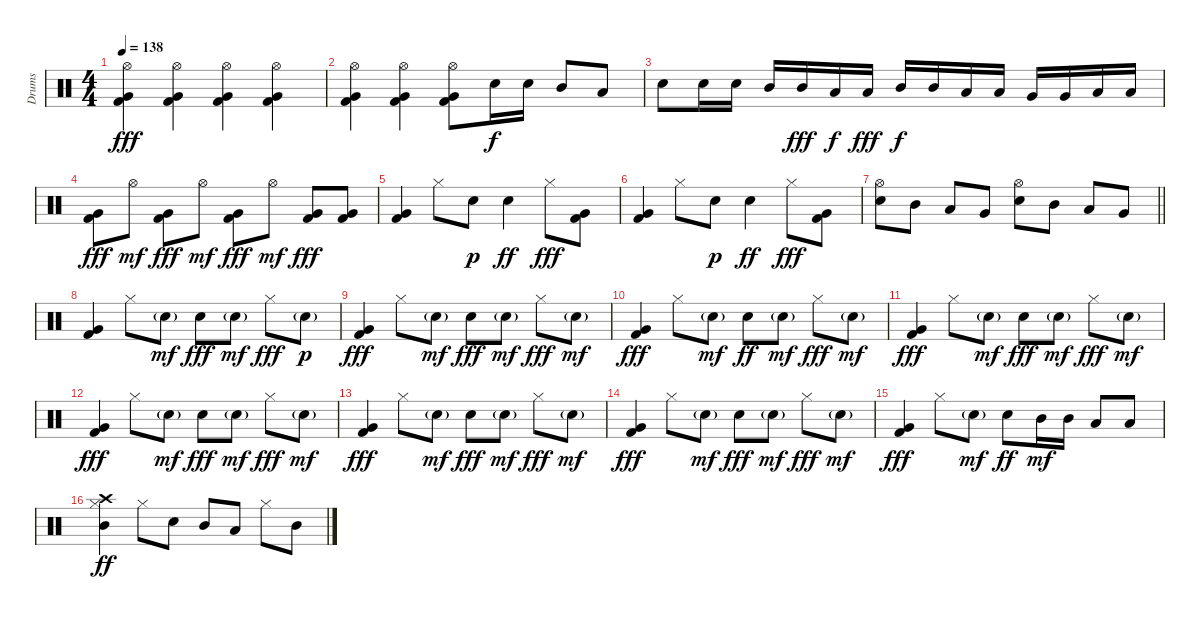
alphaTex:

\track ("Drums" "Drums") {instrument percussion}
\staff {score}
\articulation defaults
\ts (4 4)
\tempo 138
\clef neutral
\ks c
("Hi-Hat (open)" "Very Low Tom (hit)" "Kick (hit) 2").4{dy fff} ("Hi-Hat (open)" "Very Low Tom (hit)" "Kick (hit) 2").4 ("Hi-Hat (open)" "Very Low Tom (hit)" "Kick (hit) 2").4 ("Hi-Hat (open)" "Very Low Tom (hit)" "Kick (hit) 2").4 |
("Hi-Hat (open)" "Very Low Tom (hit)" "Kick (hit) 2").4 ("Hi-Hat (open)" "Very Low Tom (hit)" "Kick (hit) 2").4 ("Hi-Hat (open)" "Very Low Tom (hit)" "Kick (hit) 2").8 "Electric Snare (hit)".16{dy f} "Electric Snare (hit)".16 "Mid Tom (hit)".8 "Low Tom (hit)".8 |
"Electric Snare (hit)".8 "Electric Snare (hit)".16 "Electric Snare (hit)".16 "Mid Tom (hit)".16 "Mid Tom (hit)".16{dy fff} "Low Tom (hit)".16{dy f} "Low Tom (hit)".16{dy fff} "Mid Tom (hit)".16{dy f} "Mid Tom (hit)".16 "Low Tom (hit)".16 "Low Tom (hit)".16 "Very Low Tom (hit)".16 "Very Low Tom (hit)".16 "Low Floor Tom (hit)".16 "Low Floor Tom (hit)".16 |
("Very Low Tom (hit)" "Kick (hit) 2").8{dy fff} "Hi-Hat (open)".8{dy mf} ("Very Low Tom (hit)" "Kick (hit) 2").8{dy fff} "Hi-Hat (open)".8{dy mf} ("Very Low Tom (hit)" "Kick (hit) 2").8{dy fff} "Hi-Hat (open)".8{dy mf} ("Very Low Tom (hit)" "Kick (hit) 2").8{dy fff} ("Very Low Tom (hit)" "Kick (hit) 2").8 |
("Very Low Tom (hit)" "Kick (hit) 2").4 "Hi-Hat (closed)".8 "Electric Snare (hit)".8{dy p} "Electric Snare (hit)".4{dy ff} "Hi-Hat (closed)".8{dy fff} ("Very Low Tom (hit)" "Kick (hit) 2").8 |
("Very Low Tom (hit)" "Kick (hit) 2").4 "Hi-Hat (closed)".8 "Electric Snare (hit)".8{dy p} "Electric Snare (hit)".4{dy ff} "Hi-Hat (closed)".8{dy fff} ("Very Low Tom (hit)" "Kick (hit) 2").8 |
\barLineRight lightlight
("Hi-Hat (open)" "Electric Snare (hit)").8 "Mid Tom (hit)".8 "Low Tom (hit)".8 "Very Low Tom (hit)".8 ("Hi-Hat (open)" "Electric Snare (hit)").8 "Mid Tom (hit)".8 "Low Tom (hit)".8 "Very Low Tom (hit)".8 |
("Very Low Tom (hit)" "Kick (hit) 2").4 "Hi-Hat (closed)".8 "Electric Snare (hit)"{g}.8{dy mf} "Electric Snare (hit)".8{dy fff} "Electric Snare (hit)"{g}.8{dy mf} "Hi-Hat (closed)".8{dy fff} "Electric Snare (hit)"{g}.8{dy p} |
("Very Low Tom (hit)" "Kick (hit) 2").4{dy fff} "Hi-Hat (closed)".8 "Electric Snare (hit)"{g}.8{dy mf} "Electric Snare (hit)".8{dy fff} "Electric Snare (hit)"{g}.8{dy mf} "Hi-Hat (closed)".8{dy fff} "Electric Snare (hit)"{g}.8{dy mf} |
("Very Low Tom (hit)" "Kick (hit) 2").4{dy fff} "Hi-Hat (closed)".8 "Electric Snare (hit)"{g}.8{dy mf} "Electric Snare (hit)".8{dy ff} "Electric Snare (hit)"{g}.8{dy mf} "Hi-Hat (closed)".8{dy fff} "Electric Snare (hit)"{g}.8{dy mf} |
("Very Low Tom (hit)" "Kick (hit) 2").4{dy fff} "Hi-Hat (closed)".8 "Electric Snare (hit)"{g}.8{dy mf} "Electric Snare (hit)".8{dy fff} "Electric Snare (hit)"{g}.8{dy mf} "Hi-Hat (closed)".8{dy fff} "Electric Snare (hit)"{g}.8{dy mf} |
("Very Low Tom (hit)" "Kick (hit) 2").4{dy fff} "Hi-Hat (closed)".8 "Electric Snare (hit)"{g}.8{dy mf} "Electric Snare (hit)".8{dy fff} "Electric Snare (hit)"{g}.8{dy mf} "Hi-Hat (closed)".8{dy fff} "Electric Snare (hit)"{g}.8{dy mf} |
("Very Low Tom (hit)" "Kick (hit) 2").4{dy fff} "Hi-Hat (closed)".8 "Electric Snare (hit)"{g}.8{dy mf} "Electric Snare (hit)".8{dy fff} "Electric Snare (hit)"{g}.8{dy mf} "Hi-Hat (closed)".8{dy fff} "Electric Snare (hit)"{g}.8{dy mf} |
("Very Low Tom (hit)" "Kick (hit) 2").4{dy fff} "Hi-Hat (closed)".8 "Electric Snare (hit)"{g}.8{dy mf} "Electric Snare (hit)".8{dy fff} "Electric Snare (hit)"{g}.8{dy mf} "Hi-Hat (closed)".8{dy fff} "Electric Snare (hit)"{g}.8{dy mf} |
("Very Low Tom (hit)" "Kick (hit) 2").4{dy fff} "Hi-Hat (closed)".8 "Electric Snare (hit)"{g}.8{dy mf} "Electric Snare (hit)".8{dy ff} "Mid Tom (hit)".16{dy mf} "Mid Tom (hit)".16 "Low Tom (hit)".8 "Low Tom (hit)".8 |
("Crash high (hit)" "Hi-Hat (closed)" "Mid Tom (hit)").4{dy ff} "Hi-Hat (closed)".8 "Electric Snare (hit)".8 "Mid Tom (hit)".8 "Low Tom (hit)".8 "Hi-Hat (closed)".8 "Mid Tom (hit)".8
